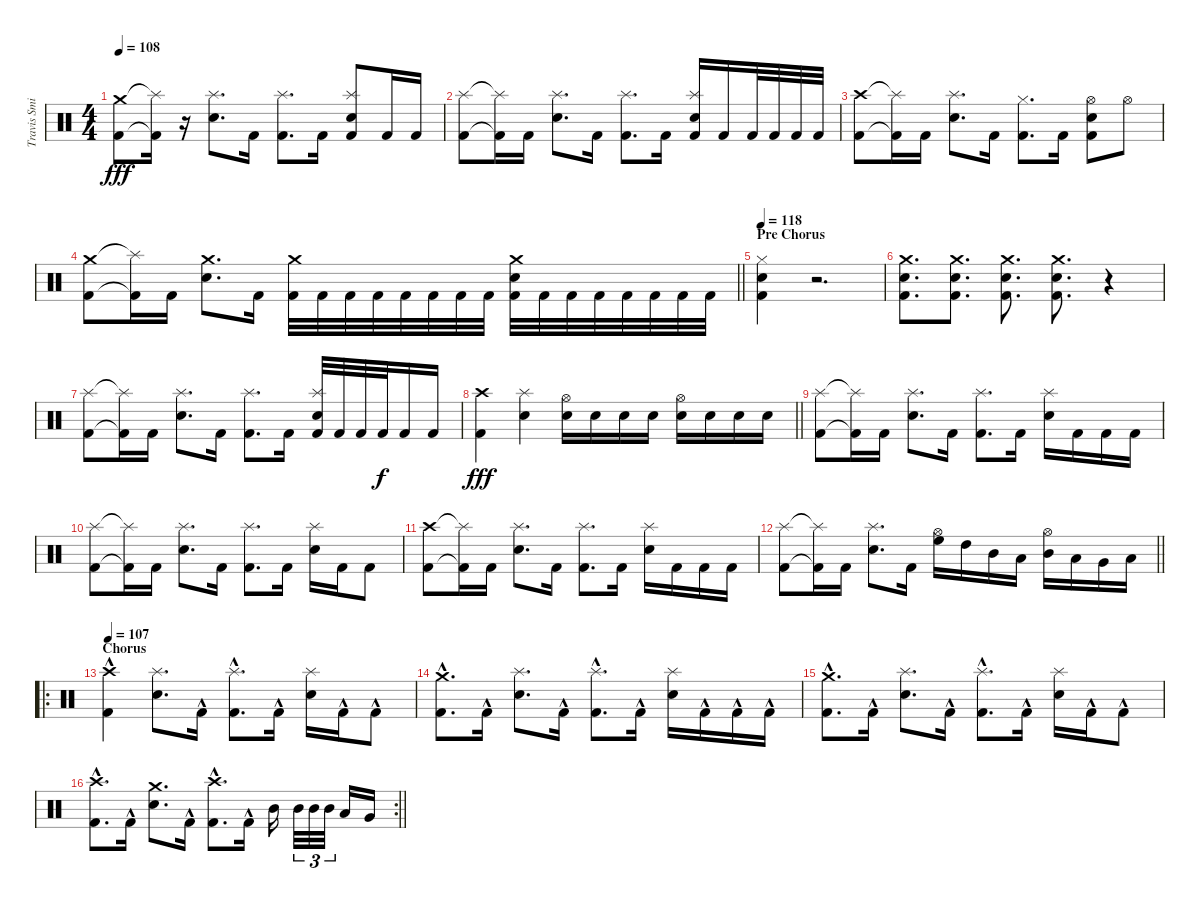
\track ("Travis Smith" "Travis Smi") {instrument percussion}
\staff {score}
\articulation defaults
\ts (4 4)
\tempo 108
\clef neutral
\ks c
("Crash medium (hit)" "Kick (hit) 2").8{dy fff} ("Splash (hit)"{t} "Kick (hit) 2"{t}).16 r.16 ("Splash (hit)" "Snare (hit) 2").8{d} "Kick (hit) 2".16 ("Splash (hit)" "Kick (hit) 2").8{d} "Kick (hit) 2".16 ("Splash (hit)" "Snare (hit) 2" "Kick (hit) 2").8 "Kick (hit) 2".16 "Kick (hit) 2".16 |
("Splash (hit)" "Kick (hit) 2").8 ("Splash (hit)"{t} "Kick (hit) 2"{t}).16 "Kick (hit) 2".16 ("Splash (hit)" "Snare (hit) 2").8{d} "Kick (hit) 2".16 ("Splash (hit)" "Kick (hit) 2").8{d} "Kick (hit) 2".16 ("Splash (hit)" "Snare (hit) 2" "Kick (hit) 2").16 "Kick (hit) 2".16 "Kick (hit) 2".32 "Kick (hit) 2".32 "Kick (hit) 2".32 "Kick (hit) 2".32 |
("Crash high (hit)" "Kick (hit) 2").8 ("Splash (hit)"{t} "Kick (hit) 2"{t}).16 "Kick (hit) 2".16 ("Splash (hit)" "Snare (hit) 2").8{d} "Kick (hit) 2".16 ("Hi-Hat (closed)" "Kick (hit) 2").8{d} "Kick (hit) 2".16 ("Hi-Hat (open)" "Snare (hit) 2" "Kick (hit) 2").8 "Hi-Hat (open)".8 |
\barLineRight lightlight
("Crash medium (hit)" "Kick (hit) 2").8 ("Splash (hit)"{t} "Kick (hit) 2"{t}).16 "Kick (hit) 2".16 ("Crash medium (hit)" "Snare (hit) 2").8{d} "Kick (hit) 2".16 ("Crash medium (hit)" "Kick (hit) 2").32 "Kick (hit) 2".32 "Kick (hit) 2".32 "Kick (hit) 2".32 "Kick (hit) 2".32 "Kick (hit) 2".32 "Kick (hit) 2".32 "Kick (hit) 2".32 ("Crash medium (hit)" "Snare (hit) 2" "Kick (hit) 2").32 "Kick (hit) 2".32 "Kick (hit) 2".32 "Kick (hit) 2".32 "Kick (hit) 2".32 "Kick (hit) 2".32 "Kick (hit) 2".32 "Kick (hit) 2".32 |
\section ("" "Pre Chorus")
\tempo 118
("Hi-Hat (closed)" "Snare (hit) 2" "Kick (hit) 2").4 r.2{d} |
("Crash medium (hit)" "Snare (hit) 2" "Kick (hit) 2").8{d} ("Crash medium (hit)" "Snare (hit) 2" "Kick (hit) 2").8{d} ("Crash medium (hit)" "Snare (hit) 2" "Kick (hit) 2").8{d} ("Crash medium (hit)" "Snare (hit) 2" "Kick (hit) 2").8{d} r.4 |
("Splash (hit)" "Kick (hit) 2").8 ("Splash (hit)"{t} "Kick (hit) 2"{t}).16 "Kick (hit) 2".16 ("Splash (hit)" "Snare (hit) 2").8{d} "Kick (hit) 2".16 ("Splash (hit)" "Kick (hit) 2").8{d} "Kick (hit) 2".16 ("Splash (hit)" "Snare (hit) 2" "Kick (hit) 2").32 "Kick (hit) 2".32 "Kick (hit) 2".32 "Kick (hit) 2".32{dy f} "Kick (hit) 2".16 "Kick (hit) 2".16 |
\barLineRight lightlight
("Crash high (hit)" "Kick (hit) 2").4{dy fff} ("Splash (hit)" "Snare (hit) 2").4 ("Hi-Hat (open)" "Snare (hit) 2").16 "Snare (hit) 2".16 "Snare (hit) 2".16 "Snare (hit) 2".16 ("Hi-Hat (open)" "Snare (hit) 2").16 "Snare (hit) 2".16 "Snare (hit) 2".16 "Snare (hit) 2".16 |
("Splash (hit)" "Kick (hit) 2").8 ("Splash (hit)"{t} "Kick (hit) 2"{t}).16 "Kick (hit) 2".16 ("Splash (hit)" "Snare (hit) 2").8{d} "Kick (hit) 2".16 ("Splash (hit)" "Kick (hit) 2").8{d} "Kick (hit) 2".16 ("Splash (hit)" "Snare (hit) 2").16 "Kick (hit) 2".16 "Kick (hit) 2".16 "Kick (hit) 2".16 |
("Splash (hit)" "Kick (hit) 2").8 ("Splash (hit)"{t} "Kick (hit) 2"{t}).16 "Kick (hit) 2".16 ("Splash (hit)" "Snare (hit) 2").8{d} "Kick (hit) 2".16 ("Splash (hit)" "Kick (hit) 2").8{d} "Kick (hit) 2".16 ("Splash (hit)" "Snare (hit) 2").16 "Kick (hit) 2".16 "Kick (hit) 2".8 |
("Crash high (hit)" "Kick (hit) 2").8 ("Splash (hit)"{t} "Kick (hit) 2"{t}).16 "Kick (hit) 2".16 ("Splash (hit)" "Snare (hit) 2").8{d} "Kick (hit) 2".16 ("Splash (hit)" "Kick (hit) 2").8{d} "Kick (hit) 2".16 ("Splash (hit)" "Snare (hit) 2").16 "Kick (hit) 2".16 "Kick (hit) 2".16 "Kick (hit) 2".16 |
\barLineRight lightlight
("Splash (hit)" "Kick (hit) 2").8 ("Splash (hit)"{t} "Kick (hit) 2"{t}).16 "Kick (hit) 2".16 ("Splash (hit)" "Snare (hit) 2").8{d} "Kick (hit) 2".16 ("Hi-Hat (open)" "High Floor Tom (hit)").16 "High Tom (hit)".16 "Mid Tom (hit)".16 "Low Tom (hit)".16 ("Hi-Hat (open)" "Mid Tom (hit)").16 "Low Tom (hit)".16 "Very Low Tom (hit)".16 "Low Floor Tom (hit)".16 |
\ro
\section ("" "Chorus")
\tempo 107
("Crash high (hit)" "Kick (hit) 2"{hac}).4 ("Splash (hit)" "Snare (hit) 2").8{d} "Kick (hit) 2"{hac}.16 ("Splash (hit)" "Kick (hit) 2"{hac}).8{d} "Kick (hit) 2"{hac}.16 ("Splash (hit)" "Snare (hit) 2").16 "Kick (hit) 2"{hac}.16 "Kick (hit) 2"{hac}.8 |
("Crash medium (hit)" "Kick (hit) 2"{hac}).8{d} "Kick (hit) 2"{hac}.16 ("Splash (hit)" "Snare (hit) 2").8{d} "Kick (hit) 2"{hac}.16 ("Splash (hit)" "Kick (hit) 2"{hac}).8{d} "Kick (hit) 2"{hac}.16 ("Splash (hit)" "Snare (hit) 2").16 "Kick (hit) 2"{hac}.16 "Kick (hit) 2"{hac}.16 "Kick (hit) 2"{hac}.16 |
("Crash medium (hit)" "Kick (hit) 2"{hac}).8{d} "Kick (hit) 2"{hac}.16 ("Splash (hit)" "Snare (hit) 2").8{d} "Kick (hit) 2"{hac}.16 ("Splash (hit)" "Kick (hit) 2"{hac}).8{d} "Kick (hit) 2"{hac}.16 ("Splash (hit)" "Snare (hit) 2").16 "Kick (hit) 2"{hac}.16 "Kick (hit) 2"{hac}.8 |
\rc 2
\barLineRight lightlight
("Crash high (hit)" "Kick (hit) 2"{hac}).8{d} "Kick (hit) 2"{hac}.16 ("Crash medium (hit)" "Snare (hit) 2").8{d} "Kick (hit) 2"{hac}.16 ("Crash high (hit)" "Kick (hit) 2"{hac}).8{d} "Kick (hit) 2"{hac}.16 "Mid Tom (hit)".16{beam splitsecondary} "Mid Tom (hit)".32{tu (3 2)} "Mid Tom (hit)".32{tu (3 2)} "Mid Tom (hit)".32{tu (3 2) beam splitsecondary} "Low Tom (hit)".16 "Very Low Tom (hit)".16
